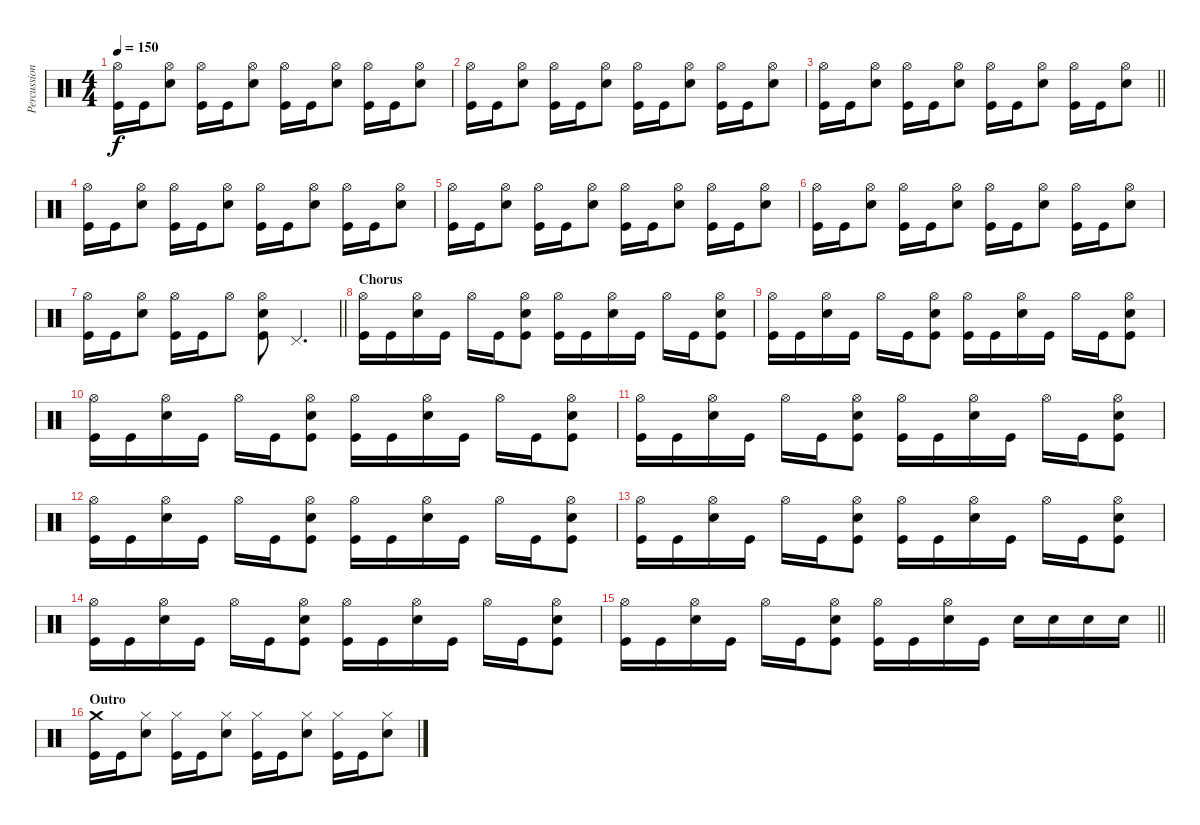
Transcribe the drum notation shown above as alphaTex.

\track ("Percussion" "Percussion") {instrument percussion}
\staff {score}
\articulation defaults
\ts (4 4)
\tempo 150
\clef neutral
\ks c
("Hi-Hat (open)" "Kick (hit)").16{dy f} "Kick (hit)".16 ("Hi-Hat (open)" "Electric Snare (hit)").8 ("Hi-Hat (open)" "Kick (hit)").16 "Kick (hit)".16 ("Hi-Hat (open)" "Electric Snare (hit)").8 ("Hi-Hat (open)" "Kick (hit)").16 "Kick (hit)".16 ("Hi-Hat (open)" "Electric Snare (hit)").8 ("Hi-Hat (open)" "Kick (hit)").16 "Kick (hit)".16 ("Hi-Hat (open)" "Electric Snare (hit)").8 |
("Hi-Hat (open)" "Kick (hit)").16 "Kick (hit)".16 ("Hi-Hat (open)" "Electric Snare (hit)").8 ("Hi-Hat (open)" "Kick (hit)").16 "Kick (hit)".16 ("Hi-Hat (open)" "Electric Snare (hit)").8 ("Hi-Hat (open)" "Kick (hit)").16 "Kick (hit)".16 ("Hi-Hat (open)" "Electric Snare (hit)").8 ("Hi-Hat (open)" "Kick (hit)").16 "Kick (hit)".16 ("Hi-Hat (open)" "Electric Snare (hit)").8 |
\barLineRight lightlight
("Hi-Hat (open)" "Kick (hit)").16 "Kick (hit)".16 ("Hi-Hat (open)" "Electric Snare (hit)").8 ("Hi-Hat (open)" "Kick (hit)").16 "Kick (hit)".16 ("Hi-Hat (open)" "Electric Snare (hit)").8 ("Hi-Hat (open)" "Kick (hit)").16 "Kick (hit)".16 ("Hi-Hat (open)" "Electric Snare (hit)").8 ("Hi-Hat (open)" "Kick (hit)").16 "Kick (hit)".16 ("Hi-Hat (open)" "Electric Snare (hit)").8 |
("Hi-Hat (open)" "Kick (hit)").16 "Kick (hit)".16 ("Hi-Hat (open)" "Electric Snare (hit)").8 ("Hi-Hat (open)" "Kick (hit)").16 "Kick (hit)".16 ("Hi-Hat (open)" "Electric Snare (hit)").8 ("Hi-Hat (open)" "Kick (hit)").16 "Kick (hit)".16 ("Hi-Hat (open)" "Electric Snare (hit)").8 ("Hi-Hat (open)" "Kick (hit)").16 "Kick (hit)".16 ("Hi-Hat (open)" "Electric Snare (hit)").8 |
("Hi-Hat (open)" "Kick (hit)").16 "Kick (hit)".16 ("Hi-Hat (open)" "Electric Snare (hit)").8 ("Hi-Hat (open)" "Kick (hit)").16 "Kick (hit)".16 ("Hi-Hat (open)" "Electric Snare (hit)").8 ("Hi-Hat (open)" "Kick (hit)").16 "Kick (hit)".16 ("Hi-Hat (open)" "Electric Snare (hit)").8 ("Hi-Hat (open)" "Kick (hit)").16 "Kick (hit)".16 ("Hi-Hat (open)" "Electric Snare (hit)").8 |
("Hi-Hat (open)" "Kick (hit)").16 "Kick (hit)".16 ("Hi-Hat (open)" "Electric Snare (hit)").8 ("Hi-Hat (open)" "Kick (hit)").16 "Kick (hit)".16 ("Hi-Hat (open)" "Electric Snare (hit)").8 ("Hi-Hat (open)" "Kick (hit)").16 "Kick (hit)".16 ("Hi-Hat (open)" "Electric Snare (hit)").8 ("Hi-Hat (open)" "Kick (hit)").16 "Kick (hit)".16 ("Hi-Hat (open)" "Electric Snare (hit)").8 |
\barLineRight lightlight
("Hi-Hat (open)" "Kick (hit)").16 "Kick (hit)".16 ("Hi-Hat (open)" "Electric Snare (hit)").8 ("Hi-Hat (open)" "Kick (hit)").16 "Kick (hit)".16 "Hi-Hat (open)".8 ("Hi-Hat (open)" "Electric Snare (hit)" "Kick (hit)").8 "Pedal Hi-Hat (hit)".4{d} |
\section ("" "Chorus")
("Hi-Hat (open)" "Kick (hit)").16 "Kick (hit)".16 ("Hi-Hat (open)" "Electric Snare (hit)").16 "Kick (hit)".16 "Hi-Hat (open)".16 "Kick (hit)".16 ("Hi-Hat (open)" "Electric Snare (hit)" "Kick (hit)").8 ("Hi-Hat (open)" "Kick (hit)").16 "Kick (hit)".16 ("Hi-Hat (open)" "Electric Snare (hit)").16 "Kick (hit)".16 "Hi-Hat (open)".16 "Kick (hit)".16 ("Hi-Hat (open)" "Electric Snare (hit)" "Kick (hit)").8 |
("Hi-Hat (open)" "Kick (hit)").16 "Kick (hit)".16 ("Hi-Hat (open)" "Electric Snare (hit)").16 "Kick (hit)".16 "Hi-Hat (open)".16 "Kick (hit)".16 ("Hi-Hat (open)" "Electric Snare (hit)" "Kick (hit)").8 ("Hi-Hat (open)" "Kick (hit)").16 "Kick (hit)".16 ("Hi-Hat (open)" "Electric Snare (hit)").16 "Kick (hit)".16 "Hi-Hat (open)".16 "Kick (hit)".16 ("Hi-Hat (open)" "Electric Snare (hit)" "Kick (hit)").8 |
("Hi-Hat (open)" "Kick (hit)").16 "Kick (hit)".16 ("Hi-Hat (open)" "Electric Snare (hit)").16 "Kick (hit)".16 "Hi-Hat (open)".16 "Kick (hit)".16 ("Hi-Hat (open)" "Electric Snare (hit)" "Kick (hit)").8 ("Hi-Hat (open)" "Kick (hit)").16 "Kick (hit)".16 ("Hi-Hat (open)" "Electric Snare (hit)").16 "Kick (hit)".16 "Hi-Hat (open)".16 "Kick (hit)".16 ("Hi-Hat (open)" "Electric Snare (hit)" "Kick (hit)").8 |
("Hi-Hat (open)" "Kick (hit)").16 "Kick (hit)".16 ("Hi-Hat (open)" "Electric Snare (hit)").16 "Kick (hit)".16 "Hi-Hat (open)".16 "Kick (hit)".16 ("Hi-Hat (open)" "Electric Snare (hit)" "Kick (hit)").8 ("Hi-Hat (open)" "Kick (hit)").16 "Kick (hit)".16 ("Hi-Hat (open)" "Electric Snare (hit)").16 "Kick (hit)".16 "Hi-Hat (open)".16 "Kick (hit)".16 ("Hi-Hat (open)" "Electric Snare (hit)" "Kick (hit)").8 |
("Hi-Hat (open)" "Kick (hit)").16 "Kick (hit)".16 ("Hi-Hat (open)" "Electric Snare (hit)").16 "Kick (hit)".16 "Hi-Hat (open)".16 "Kick (hit)".16 ("Hi-Hat (open)" "Electric Snare (hit)" "Kick (hit)").8 ("Hi-Hat (open)" "Kick (hit)").16 "Kick (hit)".16 ("Hi-Hat (open)" "Electric Snare (hit)").16 "Kick (hit)".16 "Hi-Hat (open)".16 "Kick (hit)".16 ("Hi-Hat (open)" "Electric Snare (hit)" "Kick (hit)").8 |
("Hi-Hat (open)" "Kick (hit)").16 "Kick (hit)".16 ("Hi-Hat (open)" "Electric Snare (hit)").16 "Kick (hit)".16 "Hi-Hat (open)".16 "Kick (hit)".16 ("Hi-Hat (open)" "Electric Snare (hit)" "Kick (hit)").8 ("Hi-Hat (open)" "Kick (hit)").16 "Kick (hit)".16 ("Hi-Hat (open)" "Electric Snare (hit)").16 "Kick (hit)".16 "Hi-Hat (open)".16 "Kick (hit)".16 ("Hi-Hat (open)" "Electric Snare (hit)" "Kick (hit)").8 |
("Hi-Hat (open)" "Kick (hit)").16 "Kick (hit)".16 ("Hi-Hat (open)" "Electric Snare (hit)").16 "Kick (hit)".16 "Hi-Hat (open)".16 "Kick (hit)".16 ("Hi-Hat (open)" "Electric Snare (hit)" "Kick (hit)").8 ("Hi-Hat (open)" "Kick (hit)").16 "Kick (hit)".16 ("Hi-Hat (open)" "Electric Snare (hit)").16 "Kick (hit)".16 "Hi-Hat (open)".16 "Kick (hit)".16 ("Hi-Hat (open)" "Electric Snare (hit)" "Kick (hit)").8 |
\barLineRight lightlight
("Hi-Hat (open)" "Kick (hit)").16 "Kick (hit)".16 ("Hi-Hat (open)" "Electric Snare (hit)").16 "Kick (hit)".16 "Hi-Hat (open)".16 "Kick (hit)".16 ("Hi-Hat (open)" "Electric Snare (hit)" "Kick (hit)").8 ("Hi-Hat (open)" "Kick (hit)").16 "Kick (hit)".16 ("Hi-Hat (open)" "Electric Snare (hit)").16 "Kick (hit)".16 "Electric Snare (hit)".16 "Electric Snare (hit)".16 "Electric Snare (hit)".16 "Electric Snare (hit)".16 |
\section ("" "Outro")
("Crash medium (hit)" "Kick (hit)").16 "Kick (hit)".16 ("Hi-Hat (closed)" "Electric Snare (hit)").8 ("Hi-Hat (closed)" "Kick (hit)").16 "Kick (hit)".16 ("Hi-Hat (closed)" "Electric Snare (hit)").8 ("Hi-Hat (closed)" "Kick (hit)").16 "Kick (hit)".16 ("Hi-Hat (closed)" "Electric Snare (hit)").8 ("Hi-Hat (closed)" "Kick (hit)").16 "Kick (hit)".16 ("Hi-Hat (closed)" "Electric Snare (hit)").8
